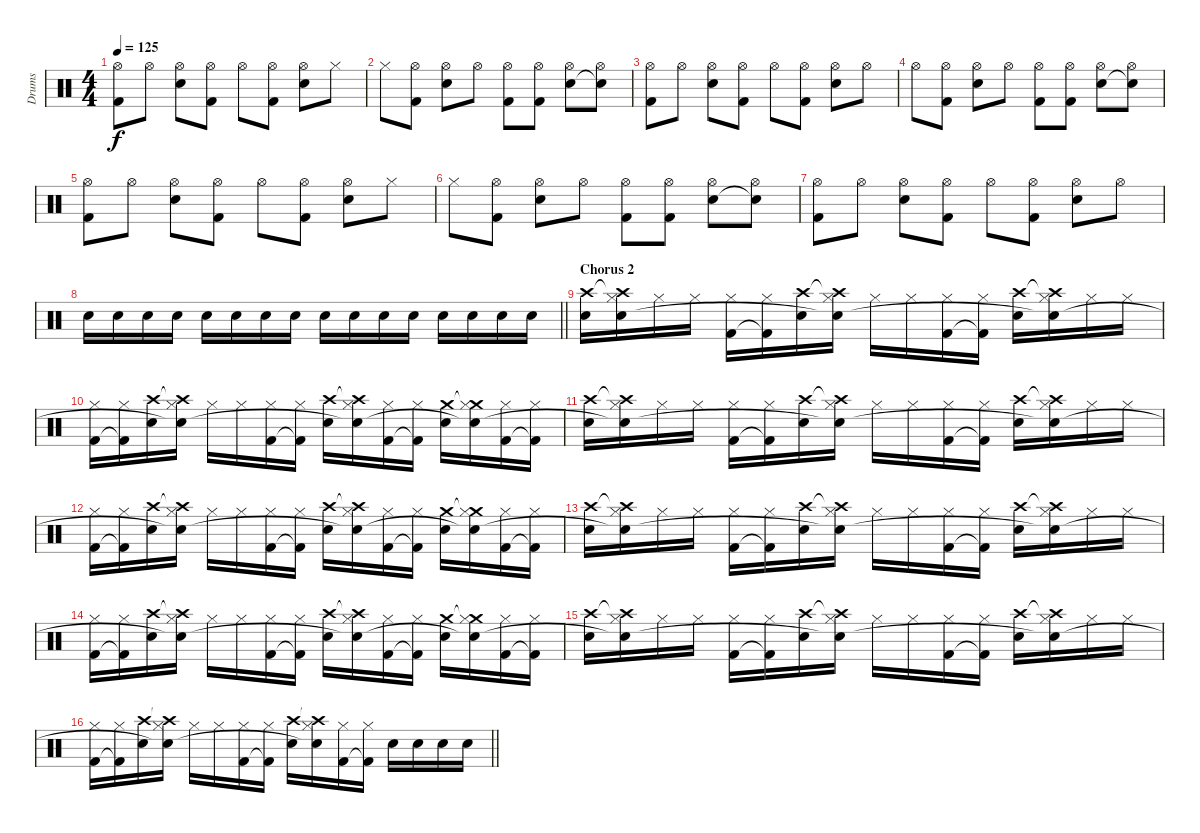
\track ("Drums" "Drums") {instrument percussion}
\staff {score}
\articulation defaults
\ts (4 4)
\tempo 125
\clef neutral
\ks c
("Hi-Hat (open)" "Kick (hit) 2").8{dy f} "Hi-Hat (open)".8 ("Hi-Hat (open)" "Snare (hit) 2").8 ("Hi-Hat (open)" "Kick (hit) 2").8 "Hi-Hat (open)".8 ("Hi-Hat (open)" "Kick (hit) 2").8 ("Hi-Hat (open)" "Snare (hit) 2").8 "Hi-Hat (closed)".8 |
"Hi-Hat (closed)".8 ("Hi-Hat (open)" "Kick (hit) 2").8 ("Hi-Hat (open)" "Snare (hit) 2").8 "Hi-Hat (open)".8 ("Hi-Hat (open)" "Kick (hit) 2").8 ("Hi-Hat (open)" "Kick (hit) 2").8 ("Hi-Hat (open)" "Snare (hit) 2").8 ("Hi-Hat (open)" "Snare (hit) 2"{t}).8 |
("Hi-Hat (open)" "Kick (hit) 2").8 "Hi-Hat (open)".8 ("Hi-Hat (open)" "Snare (hit) 2").8 ("Hi-Hat (open)" "Kick (hit) 2").8 "Hi-Hat (open)".8 ("Hi-Hat (open)" "Kick (hit) 2").8 ("Hi-Hat (open)" "Snare (hit) 2").8 "Hi-Hat (open)".8 |
"Hi-Hat (open)".8 ("Hi-Hat (open)" "Kick (hit) 2").8 ("Hi-Hat (open)" "Snare (hit) 2").8 "Hi-Hat (open)".8 ("Hi-Hat (open)" "Kick (hit) 2").8 ("Hi-Hat (open)" "Kick (hit) 2").8 ("Hi-Hat (open)" "Snare (hit) 2").8 ("Hi-Hat (open)" "Snare (hit) 2"{t}).8 |
("Hi-Hat (open)" "Kick (hit) 2").8 "Hi-Hat (open)".8 ("Hi-Hat (open)" "Snare (hit) 2").8 ("Hi-Hat (open)" "Kick (hit) 2").8 "Hi-Hat (open)".8 ("Hi-Hat (open)" "Kick (hit) 2").8 ("Hi-Hat (open)" "Snare (hit) 2").8 "Hi-Hat (closed)".8 |
"Hi-Hat (closed)".8 ("Hi-Hat (open)" "Kick (hit) 2").8 ("Hi-Hat (open)" "Snare (hit) 2").8 "Hi-Hat (open)".8 ("Hi-Hat (open)" "Kick (hit) 2").8 ("Hi-Hat (open)" "Kick (hit) 2").8 ("Hi-Hat (open)" "Snare (hit) 2").8 ("Hi-Hat (open)" "Snare (hit) 2"{t}).8 |
("Hi-Hat (open)" "Kick (hit) 2").8 "Hi-Hat (open)".8 ("Hi-Hat (open)" "Snare (hit) 2").8 ("Hi-Hat (open)" "Kick (hit) 2").8 "Hi-Hat (open)".8 ("Hi-Hat (open)" "Kick (hit) 2").8 ("Hi-Hat (open)" "Snare (hit) 2").8 "Hi-Hat (open)".8 |
\barLineRight lightlight "Snare (hit) 2".16 "Snare (hit) 2".16 "Snare (hit) 2".16 "Snare (hit) 2".16 "Snare (hit) 2".16 "Snare (hit) 2".16 "Snare (hit) 2".16 "Snare (hit) 2".16 "Snare (hit) 2".16 "Snare (hit) 2".16 "Snare (hit) 2".16 "Snare (hit) 2".16 "Snare (hit) 2".16 "Snare (hit) 2".16 "Snare (hit) 2".16 "Snare (hit) 2".16
|
\section ("" "Chorus 2")
("Crash high (hit)" "Snare (hit) 2").16 ("Crash high (hit)"{t} "Hi-Hat (closed)" "Snare (hit) 2").16 "Hi-Hat (closed)".16 "Hi-Hat (closed)".16 ("Hi-Hat (closed)" "Kick (hit) 2").16 ("Hi-Hat (closed)" "Kick (hit) 2"{t}).16 ("Crash high (hit)" "Snare (hit) 2").16 ("Crash high (hit)"{t} "Hi-Hat (closed)" "Snare (hit) 2"{t}).16 "Hi-Hat (closed)".16 "Hi-Hat (closed)".16 ("Hi-Hat (closed)" "Kick (hit) 2").16 ("Hi-Hat (closed)" "Kick (hit) 2"{t}).16 ("Crash high (hit)" "Snare (hit) 2").16 ("Crash high (hit)"{t} "Hi-Hat (closed)" "Snare (hit) 2"{t}).16 "Hi-Hat (closed)".16 "Hi-Hat (closed)".16 |
("Hi-Hat (closed)" "Kick (hit) 2").16 ("Hi-Hat (closed)" "Kick (hit) 2"{t}).16 ("Crash high (hit)" "Snare (hit) 2").16 ("Crash high (hit)"{t} "Hi-Hat (closed)" "Snare (hit) 2"{t}).16 "Hi-Hat (closed)".16 "Hi-Hat (closed)".16 ("Hi-Hat (closed)" "Kick (hit) 2").16 ("Hi-Hat (closed)" "Kick (hit) 2"{t}).16 ("Crash high (hit)" "Snare (hit) 2").16 ("Crash high (hit)"{t} "Hi-Hat (closed)" "Snare (hit) 2"{t}).16 ("Hi-Hat (closed)" "Kick (hit) 2").16 ("Hi-Hat (closed)" "Kick (hit) 2"{t}).16 ("Crash medium (hit)" "Snare (hit) 2").16 ("Crash medium (hit)"{t} "Hi-Hat (closed)" "Snare (hit) 2"{t}).16 ("Hi-Hat (closed)" "Kick (hit) 2").16 ("Hi-Hat (closed)" "Kick (hit) 2"{t}).16 |
("Crash high (hit)" "Snare (hit) 2").16 ("Crash high (hit)"{t} "Hi-Hat (closed)" "Snare (hit) 2"{t}).16 "Hi-Hat (closed)".16 "Hi-Hat (closed)".16 ("Hi-Hat (closed)" "Kick (hit) 2").16 ("Hi-Hat (closed)" "Kick (hit) 2"{t}).16 ("Crash high (hit)" "Snare (hit) 2").16 ("Crash high (hit)"{t} "Hi-Hat (closed)" "Snare (hit) 2"{t}).16 "Hi-Hat (closed)".16 "Hi-Hat (closed)".16 ("Hi-Hat (closed)" "Kick (hit) 2").16 ("Hi-Hat (closed)" "Kick (hit) 2"{t}).16 ("Crash high (hit)" "Snare (hit) 2").16 ("Crash high (hit)"{t} "Hi-Hat (closed)" "Snare (hit) 2"{t}).16 "Hi-Hat (closed)".16 "Hi-Hat (closed)".16 |
("Hi-Hat (closed)" "Kick (hit) 2").16 ("Hi-Hat (closed)" "Kick (hit) 2"{t}).16 ("Crash high (hit)" "Snare (hit) 2").16 ("Crash high (hit)"{t} "Hi-Hat (closed)" "Snare (hit) 2"{t}).16 "Hi-Hat (closed)".16 "Hi-Hat (closed)".16 ("Hi-Hat (closed)" "Kick (hit) 2").16 ("Hi-Hat (closed)" "Kick (hit) 2"{t}).16 ("Crash high (hit)" "Snare (hit) 2").16 ("Crash high (hit)"{t} "Hi-Hat (closed)" "Snare (hit) 2"{t}).16 ("Hi-Hat (closed)" "Kick (hit) 2").16 ("Hi-Hat (closed)" "Kick (hit) 2"{t}).16 ("Crash medium (hit)" "Snare (hit) 2").16 ("Crash medium (hit)"{t} "Hi-Hat (closed)" "Snare (hit) 2"{t}).16 ("Hi-Hat (closed)" "Kick (hit) 2").16 ("Hi-Hat (closed)" "Kick (hit) 2"{t}).16 |
("Crash high (hit)" "Snare (hit) 2").16 ("Crash high (hit)"{t} "Hi-Hat (closed)" "Snare (hit) 2"{t}).16 "Hi-Hat (closed)".16 "Hi-Hat (closed)".16 ("Hi-Hat (closed)" "Kick (hit) 2").16 ("Hi-Hat (closed)" "Kick (hit) 2"{t}).16 ("Crash high (hit)" "Snare (hit) 2").16 ("Crash high (hit)"{t} "Hi-Hat (closed)" "Snare (hit) 2"{t}).16 "Hi-Hat (closed)".16 "Hi-Hat (closed)".16 ("Hi-Hat (closed)" "Kick (hit) 2").16 ("Hi-Hat (closed)" "Kick (hit) 2"{t}).16 ("Crash high (hit)" "Snare (hit) 2").16 ("Crash high (hit)"{t} "Hi-Hat (closed)" "Snare (hit) 2"{t}).16 "Hi-Hat (closed)".16 "Hi-Hat (closed)".16 |
("Hi-Hat (closed)" "Kick (hit) 2").16 ("Hi-Hat (closed)" "Kick (hit) 2"{t}).16 ("Crash high (hit)" "Snare (hit) 2").16 ("Crash high (hit)"{t} "Hi-Hat (closed)" "Snare (hit) 2"{t}).16 "Hi-Hat (closed)".16 "Hi-Hat (closed)".16 ("Hi-Hat (closed)" "Kick (hit) 2").16 ("Hi-Hat (closed)" "Kick (hit) 2"{t}).16 ("Crash high (hit)" "Snare (hit) 2").16 ("Crash high (hit)"{t} "Hi-Hat (closed)" "Snare (hit) 2"{t}).16 ("Hi-Hat (closed)" "Kick (hit) 2").16 ("Hi-Hat (closed)" "Kick (hit) 2"{t}).16 ("Crash medium (hit)" "Snare (hit) 2").16 ("Crash medium (hit)"{t} "Hi-Hat (closed)" "Snare (hit) 2"{t}).16 ("Hi-Hat (closed)" "Kick (hit) 2").16 ("Hi-Hat (closed)" "Kick (hit) 2"{t}).16 |
("Crash high (hit)" "Snare (hit) 2").16 ("Crash high (hit)"{t} "Hi-Hat (closed)" "Snare (hit) 2"{t}).16 "Hi-Hat (closed)".16 "Hi-Hat (closed)".16 ("Hi-Hat (closed)" "Kick (hit) 2").16 ("Hi-Hat (closed)" "Kick (hit) 2"{t}).16 ("Crash high (hit)" "Snare (hit) 2").16 ("Crash high (hit)"{t} "Hi-Hat (closed)" "Snare (hit) 2"{t}).16 "Hi-Hat (closed)".16 "Hi-Hat (closed)".16 ("Hi-Hat (closed)" "Kick (hit) 2").16 ("Hi-Hat (closed)" "Kick (hit) 2"{t}).16 ("Crash high (hit)" "Snare (hit) 2").16 ("Crash high (hit)"{t} "Hi-Hat (closed)" "Snare (hit) 2"{t}).16 "Hi-Hat (closed)".16 "Hi-Hat (closed)".16 |
\barLineRight lightlight
("Hi-Hat (closed)" "Kick (hit) 2").16 ("Hi-Hat (closed)" "Kick (hit) 2"{t}).16 ("Crash high (hit)" "Snare (hit) 2").16 ("Crash high (hit)"{t} "Hi-Hat (closed)" "Snare (hit) 2"{t}).16 "Hi-Hat (closed)".16 "Hi-Hat (closed)".16 ("Hi-Hat (closed)" "Kick (hit) 2").16 ("Hi-Hat (closed)" "Kick (hit) 2"{t}).16 ("Crash high (hit)" "Snare (hit) 2").16 ("Crash high (hit)"{t} "Hi-Hat (closed)" "Snare (hit) 2"{t}).16 ("Hi-Hat (closed)" "Kick (hit) 2").16 ("Hi-Hat (closed)" "Kick (hit) 2"{t}).16 "Snare (hit) 2".16 "Snare (hit) 2".16 "Snare (hit) 2".16 "Snare (hit) 2".16
